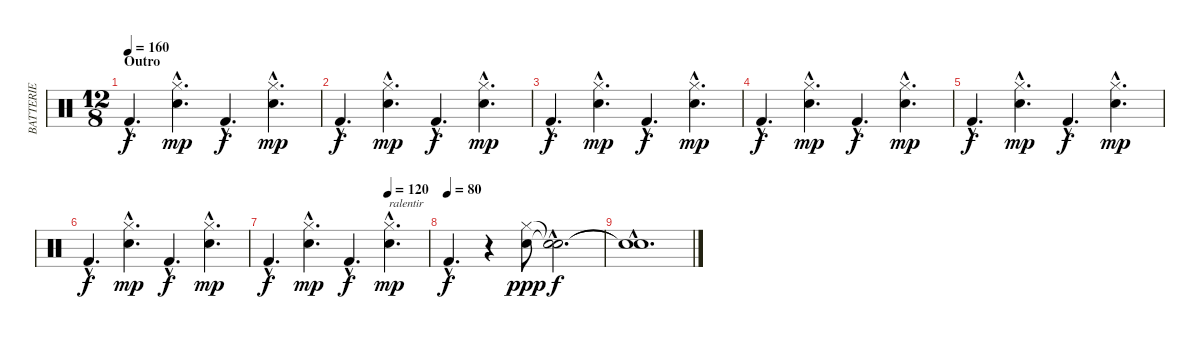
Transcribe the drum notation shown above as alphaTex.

\track ("BATTERIE" "BATTERIE") {instrument percussion}
\staff {score}
\articulation defaults
\ts (12 8)
\section ("" "Outro")
\tempo 160
\clef neutral
\ks c "Kick (hit) 2"{hac}.4{d dy f}
("Hi-Hat (closed)"{hac} "Snare (hit) 2"{hac}).4{d dy mp} "Kick (hit) 2"{hac}.4{d dy f} ("Hi-Hat (closed)"{hac} "Snare (hit) 2"{hac}).4{d dy mp} |
"Kick (hit) 2"{hac}.4{d dy f} ("Hi-Hat (closed)"{hac} "Snare (hit) 2"{hac}).4{d dy mp} "Kick (hit) 2"{hac}.4{d dy f} ("Hi-Hat (closed)"{hac} "Snare (hit) 2"{hac}).4{d dy mp} |
"Kick (hit) 2"{hac}.4{d dy f} ("Hi-Hat (closed)"{hac} "Snare (hit) 2"{hac}).4{d dy mp} "Kick (hit) 2"{hac}.4{d dy f} ("Hi-Hat (closed)"{hac} "Snare (hit) 2"{hac}).4{d dy mp} |
"Kick (hit) 2"{hac}.4{d dy f} ("Hi-Hat (closed)"{hac} "Snare (hit) 2"{hac}).4{d dy mp} "Kick (hit) 2"{hac}.4{d dy f} ("Hi-Hat (closed)"{hac} "Snare (hit) 2"{hac}).4{d dy mp} |
"Kick (hit) 2"{hac}.4{d dy f} ("Hi-Hat (closed)"{hac} "Snare (hit) 2"{hac}).4{d dy mp} "Kick (hit) 2"{hac}.4{d dy f} ("Hi-Hat (closed)"{hac} "Snare (hit) 2"{hac}).4{d dy mp} |
"Kick (hit) 2"{hac}.4{d dy f} ("Hi-Hat (closed)"{hac} "Snare (hit) 2"{hac}).4{d dy mp} "Kick (hit) 2"{hac}.4{d dy f} ("Hi-Hat (closed)"{hac} "Snare (hit) 2"{hac}).4{d dy mp} |
\tempo (120 0.75)
"Kick (hit) 2"{hac}.4{d dy f} ("Hi-Hat (closed)"{hac} "Snare (hit) 2"{hac}).4{d dy mp} "Kick (hit) 2"{hac}.4{d dy f} ("Hi-Hat (closed)"{hac} "Snare (hit) 2"{hac}).4{d txt "ralentir" dy mp} |
\tempo (80)
"Kick (hit) 2"{hac}.4{d dy f} r.4 ("Hi-Hat (closed)" "Snare (hit) 2").8{dy ppp} ("Snare (hit)"{hac t} "Snare (hit)"{hac t}).2{d dy f} |
("Snare (hit)"{hac t} "Snare (hit)"{hac t}).1{d}
